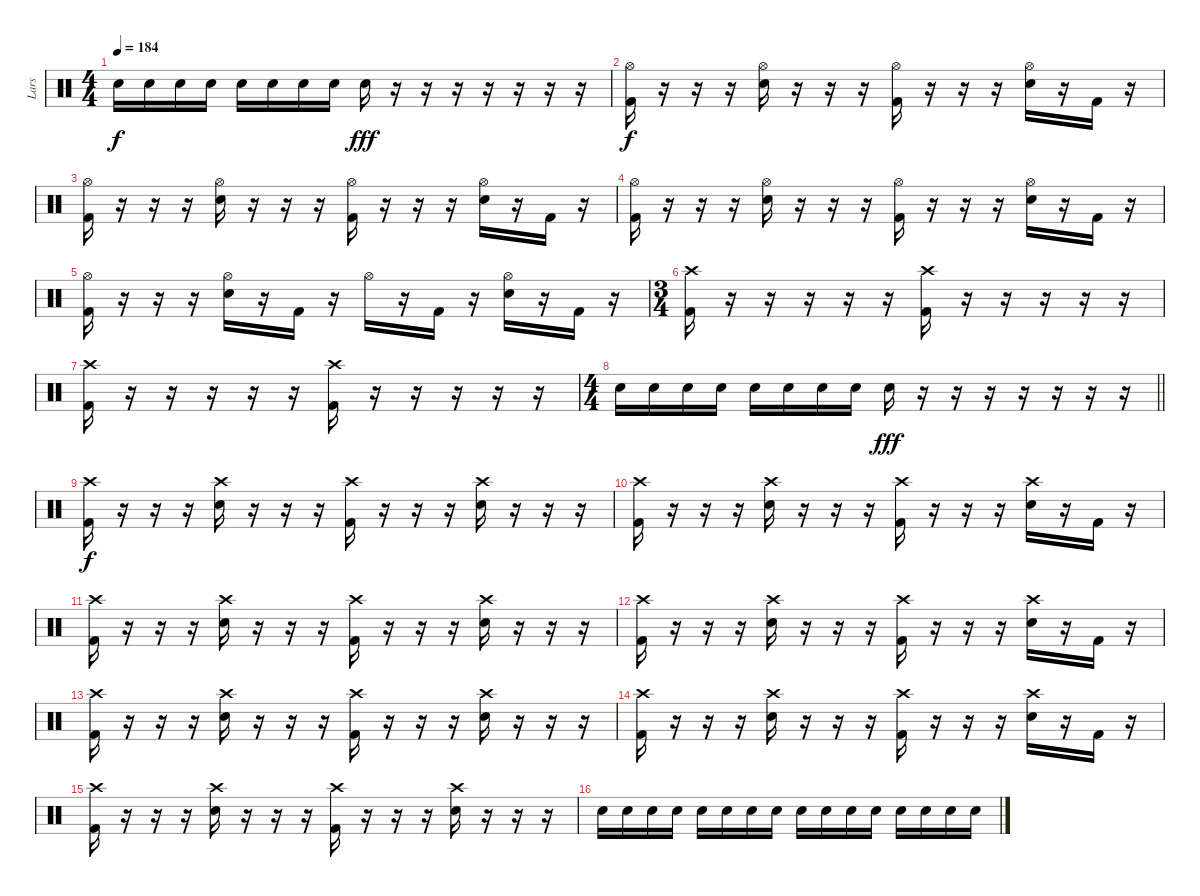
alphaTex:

\track ("Lars" "Lars") {instrument percussion}
\staff {score}
\articulation defaults
\ts (4 4)
\tempo 184
\clef neutral
\ks c "Electric Snare (hit)".16{dy f} "Electric Snare (hit)".16 "Electric Snare (hit)".16 "Electric Snare (hit)".16 "Electric Snare (hit)".16 "Electric Snare (hit)".16 "Electric Snare (hit)".16 "Electric Snare (hit)".16 "Electric Snare (hit)".16{dy fff}
r.16 r.16 r.16 r.16 r.16 r.16 r.16 |
("Hi-Hat (open)" "Kick (hit) 2").16{dy f} r.16 r.16 r.16 ("Electric Snare (hit)" "Hi-Hat (open)").16 r.16 r.16 r.16 ("Hi-Hat (open)" "Kick (hit) 2").16 r.16 r.16 r.16 ("Electric Snare (hit)" "Hi-Hat (open)").16 r.16 "Kick (hit) 2".16 r.16 |
("Hi-Hat (open)" "Kick (hit) 2").16 r.16 r.16 r.16 ("Electric Snare (hit)" "Hi-Hat (open)").16 r.16 r.16 r.16 ("Hi-Hat (open)" "Kick (hit) 2").16 r.16 r.16 r.16 ("Electric Snare (hit)" "Hi-Hat (open)").16 r.16 "Kick (hit) 2".16 r.16 |
("Hi-Hat (open)" "Kick (hit) 2").16 r.16 r.16 r.16 ("Electric Snare (hit)" "Hi-Hat (open)").16 r.16 r.16 r.16 ("Hi-Hat (open)" "Kick (hit) 2").16 r.16 r.16 r.16 ("Electric Snare (hit)" "Hi-Hat (open)").16 r.16 "Kick (hit) 2".16 r.16 |
("Hi-Hat (open)" "Kick (hit) 2").16 r.16 r.16 r.16 ("Electric Snare (hit)" "Hi-Hat (open)").16 r.16 "Kick (hit) 2".16 r.16 "Hi-Hat (open)".16 r.16 "Kick (hit) 2".16 r.16 ("Electric Snare (hit)" "Hi-Hat (open)").16 r.16 "Kick (hit) 2".16 r.16 |
\ts (3 4)
("Crash high (hit)" "Kick (hit) 2").16 r.16 r.16 r.16 r.16 r.16 ("Crash high (hit)" "Kick (hit) 2").16 r.16 r.16 r.16 r.16 r.16 |
("Crash high (hit)" "Kick (hit) 2").16 r.16 r.16 r.16 r.16 r.16 ("Crash high (hit)" "Kick (hit) 2").16 r.16 r.16 r.16 r.16 r.16 |
\ts (4 4)
\barLineRight lightlight "Electric Snare (hit)".16 "Electric Snare (hit)".16 "Electric Snare (hit)".16 "Electric Snare (hit)".16 "Electric Snare (hit)".16 "Electric Snare (hit)".16 "Electric Snare (hit)".16 "Electric Snare (hit)".16 "Electric Snare (hit)".16{dy fff}
r.16 r.16 r.16 r.16 r.16 r.16 r.16 |
("Crash high (hit)" "Kick (hit) 2").16{dy f} r.16 r.16 r.16 ("Crash high (hit)" "Electric Snare (hit)").16 r.16 r.16 r.16 ("Crash high (hit)" "Kick (hit) 2").16 r.16 r.16 r.16 ("Crash high (hit)" "Electric Snare (hit)").16 r.16 r.16 r.16 |
("Crash high (hit)" "Kick (hit) 2").16 r.16 r.16 r.16 ("Crash high (hit)" "Electric Snare (hit)").16 r.16 r.16 r.16 ("Crash high (hit)" "Kick (hit) 2").16 r.16 r.16 r.16 ("Crash high (hit)" "Electric Snare (hit)").16 r.16 "Kick (hit) 2".16 r.16 |
("Crash high (hit)" "Kick (hit) 2").16 r.16 r.16 r.16 ("Crash high (hit)" "Electric Snare (hit)").16 r.16 r.16 r.16 ("Crash high (hit)" "Kick (hit) 2").16 r.16 r.16 r.16 ("Crash high (hit)" "Electric Snare (hit)").16 r.16 r.16 r.16 |
("Crash high (hit)" "Kick (hit) 2").16 r.16 r.16 r.16 ("Crash high (hit)" "Electric Snare (hit)").16 r.16 r.16 r.16 ("Crash high (hit)" "Kick (hit) 2").16 r.16 r.16 r.16 ("Crash high (hit)" "Electric Snare (hit)").16 r.16 "Kick (hit) 2".16 r.16 |
("Crash high (hit)" "Kick (hit) 2").16 r.16 r.16 r.16 ("Crash high (hit)" "Electric Snare (hit)").16 r.16 r.16 r.16 ("Crash high (hit)" "Kick (hit) 2").16 r.16 r.16 r.16 ("Crash high (hit)" "Electric Snare (hit)").16 r.16 r.16 r.16 |
("Crash high (hit)" "Kick (hit) 2").16 r.16 r.16 r.16 ("Crash high (hit)" "Electric Snare (hit)").16 r.16 r.16 r.16 ("Crash high (hit)" "Kick (hit) 2").16 r.16 r.16 r.16 ("Crash high (hit)" "Electric Snare (hit)").16 r.16 "Kick (hit) 2".16 r.16 |
("Crash high (hit)" "Kick (hit) 2").16 r.16 r.16 r.16 ("Crash high (hit)" "Electric Snare (hit)").16 r.16 r.16 r.16 ("Crash high (hit)" "Kick (hit) 2").16 r.16 r.16 r.16 ("Crash high (hit)" "Electric Snare (hit)").16 r.16 r.16 r.16 |
"Electric Snare (hit)".16 "Electric Snare (hit)".16 "Electric Snare (hit)".16 "Electric Snare (hit)".16 "Electric Snare (hit)".16 "Electric Snare (hit)".16 "Electric Snare (hit)".16 "Electric Snare (hit)".16 "Electric Snare (hit)".16 "Electric Snare (hit)".16 "Electric Snare (hit)".16 "Electric Snare (hit)".16 "Electric Snare (hit)".16 "Electric Snare (hit)".16 "Electric Snare (hit)".16 "Electric Snare (hit)".16
